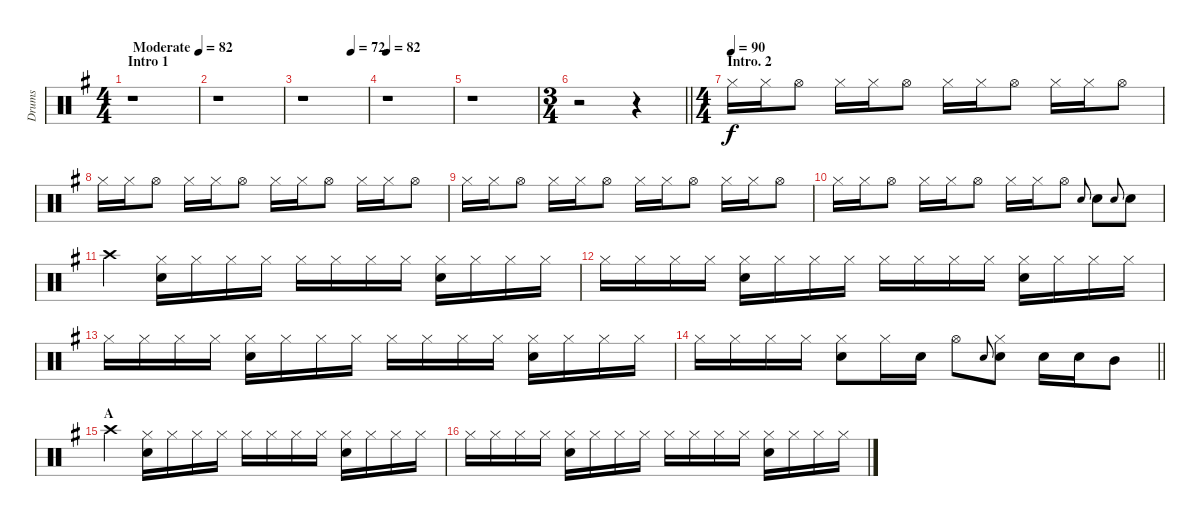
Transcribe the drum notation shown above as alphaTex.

\track ("Drums" "Drums") {instrument percussion}
\staff {score}
\articulation defaults
\ts (4 4)
\section ("" "Intro 1")
\tempo (82 "Moderate")
\clef neutral
\ks g
r.1{dy f} |
r.1 |
\tempo (72 0.75)
r.1 |
\tempo 82
r.1 |
r.1 |
\ts (3 4)
\barLineRight lightlight
r.2 r.4 |
\ts (4 4)
\section ("" "Intro. 2")
\tempo (90)
"Hi-Hat (closed)".16 "Hi-Hat (closed)".16 "Hi-Hat (open)".8 "Hi-Hat (closed)".16 "Hi-Hat (closed)".16 "Hi-Hat (open)".8 "Hi-Hat (closed)".16 "Hi-Hat (closed)".16 "Hi-Hat (open)".8 "Hi-Hat (closed)".16 "Hi-Hat (closed)".16 "Hi-Hat (open)".8 |
"Hi-Hat (closed)".16 "Hi-Hat (closed)".16 "Hi-Hat (open)".8 "Hi-Hat (closed)".16 "Hi-Hat (closed)".16 "Hi-Hat (open)".8 "Hi-Hat (closed)".16 "Hi-Hat (closed)".16 "Hi-Hat (open)".8 "Hi-Hat (closed)".16 "Hi-Hat (closed)".16 "Hi-Hat (open)".8 |
"Hi-Hat (closed)".16 "Hi-Hat (closed)".16 "Hi-Hat (open)".8 "Hi-Hat (closed)".16 "Hi-Hat (closed)".16 "Hi-Hat (open)".8 "Hi-Hat (closed)".16 "Hi-Hat (closed)".16 "Hi-Hat (open)".8 "Hi-Hat (closed)".16 "Hi-Hat (closed)".16 "Hi-Hat (open)".8 |
"Hi-Hat (closed)".16 "Hi-Hat (closed)".16 "Hi-Hat (open)".8 "Hi-Hat (closed)".16 "Hi-Hat (closed)".16 "Hi-Hat (open)".8 "Hi-Hat (closed)".16 "Hi-Hat (closed)".16 "Hi-Hat (open)".8 "Snare (hit) 2".8{gr onbeat} "Snare (hit) 2".8 "Snare (hit) 2".8{gr onbeat} "Snare (hit) 2".8 |
"Crash high (hit)".4 ("Hi-Hat (closed)" "Snare (hit) 2").16 "Hi-Hat (closed)".16 "Hi-Hat (closed)".16 "Hi-Hat (closed)".16 "Hi-Hat (closed)".16 "Hi-Hat (closed)".16 "Hi-Hat (closed)".16 "Hi-Hat (closed)".16 ("Hi-Hat (closed)" "Snare (hit) 2").16 "Hi-Hat (closed)".16 "Hi-Hat (closed)".16 "Hi-Hat (closed)".16 |
"Hi-Hat (closed)".16 "Hi-Hat (closed)".16 "Hi-Hat (closed)".16 "Hi-Hat (closed)".16 ("Hi-Hat (closed)" "Snare (hit) 2").16 "Hi-Hat (closed)".16 "Hi-Hat (closed)".16 "Hi-Hat (closed)".16 "Hi-Hat (closed)".16 "Hi-Hat (closed)".16 "Hi-Hat (closed)".16 "Hi-Hat (closed)".16 ("Hi-Hat (closed)" "Snare (hit) 2").16 "Hi-Hat (closed)".16 "Hi-Hat (closed)".16 "Hi-Hat (closed)".16 |
"Hi-Hat (closed)".16 "Hi-Hat (closed)".16 "Hi-Hat (closed)".16 "Hi-Hat (closed)".16 ("Hi-Hat (closed)" "Snare (hit) 2").16 "Hi-Hat (closed)".16 "Hi-Hat (closed)".16 "Hi-Hat (closed)".16 "Hi-Hat (closed)".16 "Hi-Hat (closed)".16 "Hi-Hat (closed)".16 "Hi-Hat (closed)".16 ("Hi-Hat (closed)" "Snare (hit) 2").16 "Hi-Hat (closed)".16 "Hi-Hat (closed)".16 "Hi-Hat (closed)".16 |
\barLineRight lightlight "Hi-Hat (closed)".16 "Hi-Hat (closed)".16 "Hi-Hat (closed)".16 "Hi-Hat (closed)".16
("Hi-Hat (closed)" "Snare (hit) 2").8 "Hi-Hat (closed)".16 "Snare (hit) 2".16 "Hi-Hat (open)".8 "Snare (hit) 2".8{gr onbeat} ("Hi-Hat (closed)" "Snare (hit) 2").8 "Snare (hit) 2".16 "Snare (hit) 2".16 "Mid Tom (hit)".8 |
\section ("" "A")
"Crash high (hit)".4 ("Hi-Hat (closed)" "Snare (hit) 2").16 "Hi-Hat (closed)".16 "Hi-Hat (closed)".16 "Hi-Hat (closed)".16 "Hi-Hat (closed)".16 "Hi-Hat (closed)".16 "Hi-Hat (closed)".16 "Hi-Hat (closed)".16 ("Hi-Hat (closed)" "Snare (hit) 2").16 "Hi-Hat (closed)".16 "Hi-Hat (closed)".16 "Hi-Hat (closed)".16 |
"Hi-Hat (closed)".16 "Hi-Hat (closed)".16 "Hi-Hat (closed)".16 "Hi-Hat (closed)".16 ("Hi-Hat (closed)" "Snare (hit) 2").16 "Hi-Hat (closed)".16 "Hi-Hat (closed)".16 "Hi-Hat (closed)".16 "Hi-Hat (closed)".16 "Hi-Hat (closed)".16 "Hi-Hat (closed)".16 "Hi-Hat (closed)".16 ("Hi-Hat (closed)" "Snare (hit) 2").16 "Hi-Hat (closed)".16 "Hi-Hat (closed)".16 "Hi-Hat (closed)".16
